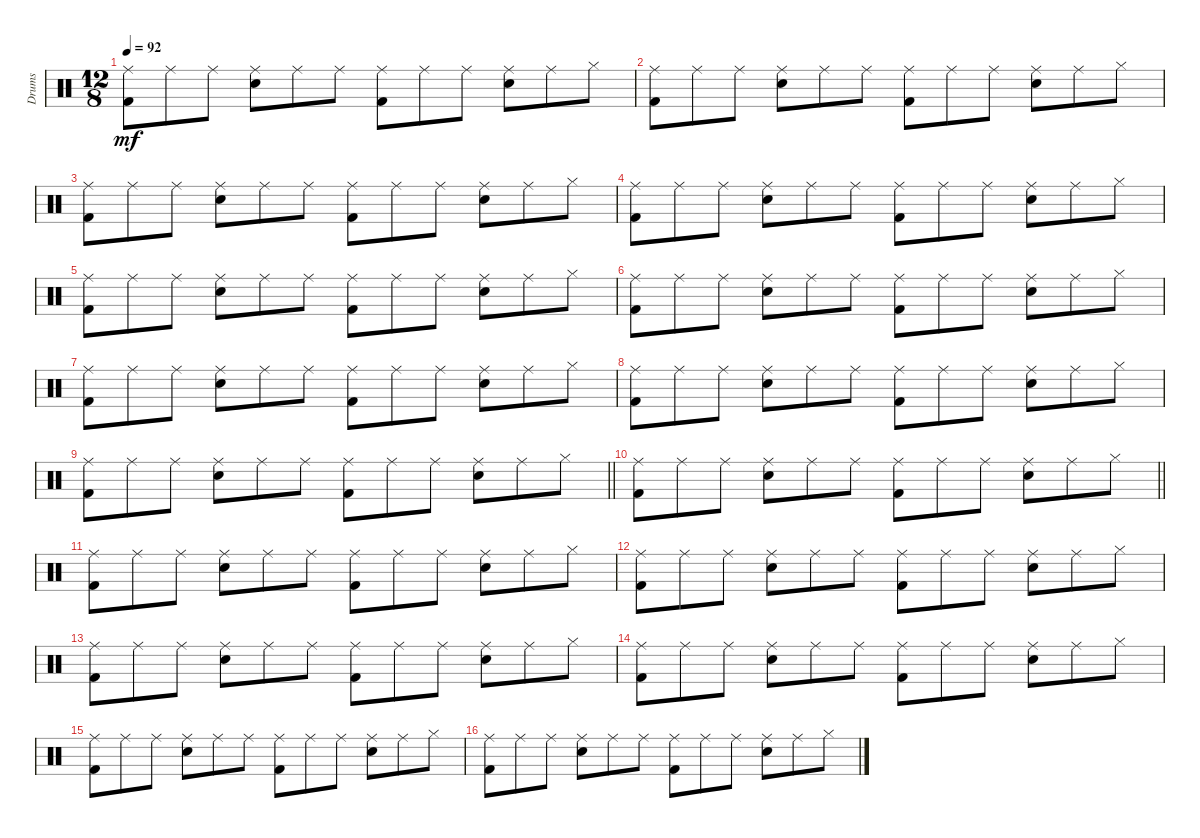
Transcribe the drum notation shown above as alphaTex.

\track ("Drums" "Drums") {instrument percussion}
\staff {score}
\articulation defaults
\ts (12 8)
\tempo 92
\clef neutral
\ks c
("Ride (middle)" "Kick (hit) 2").8{dy mf} "Ride (middle)".8 "Ride (middle)".8 ("Ride (middle)" "Electric Snare (hit)").8 "Ride (middle)".8 "Ride (middle)".8 ("Ride (middle)" "Kick (hit) 2").8 "Ride (middle)".8 "Ride (middle)".8 ("Ride (middle)" "Electric Snare (hit)").8 "Ride (middle)".8 "Hi-Hat (closed)".8 |
("Ride (middle)" "Kick (hit) 2").8 "Ride (middle)".8 "Ride (middle)".8 ("Ride (middle)" "Electric Snare (hit)").8 "Ride (middle)".8 "Ride (middle)".8 ("Ride (middle)" "Kick (hit) 2").8 "Ride (middle)".8 "Ride (middle)".8 ("Ride (middle)" "Electric Snare (hit)").8 "Ride (middle)".8 "Hi-Hat (closed)".8 |
("Ride (middle)" "Kick (hit) 2").8 "Ride (middle)".8 "Ride (middle)".8 ("Ride (middle)" "Electric Snare (hit)").8 "Ride (middle)".8 "Ride (middle)".8 ("Ride (middle)" "Kick (hit) 2").8 "Ride (middle)".8 "Ride (middle)".8 ("Ride (middle)" "Electric Snare (hit)").8 "Ride (middle)".8 "Hi-Hat (closed)".8 |
("Ride (middle)" "Kick (hit) 2").8 "Ride (middle)".8 "Ride (middle)".8 ("Ride (middle)" "Electric Snare (hit)").8 "Ride (middle)".8 "Ride (middle)".8 ("Ride (middle)" "Kick (hit) 2").8 "Ride (middle)".8 "Ride (middle)".8 ("Ride (middle)" "Electric Snare (hit)").8 "Ride (middle)".8 "Hi-Hat (closed)".8 |
("Ride (middle)" "Kick (hit) 2").8 "Ride (middle)".8 "Ride (middle)".8 ("Ride (middle)" "Electric Snare (hit)").8 "Ride (middle)".8 "Ride (middle)".8 ("Ride (middle)" "Kick (hit) 2").8 "Ride (middle)".8 "Ride (middle)".8 ("Ride (middle)" "Electric Snare (hit)").8 "Ride (middle)".8 "Hi-Hat (closed)".8 |
("Ride (middle)" "Kick (hit) 2").8 "Ride (middle)".8 "Ride (middle)".8 ("Ride (middle)" "Electric Snare (hit)").8 "Ride (middle)".8 "Ride (middle)".8 ("Ride (middle)" "Kick (hit) 2").8 "Ride (middle)".8 "Ride (middle)".8 ("Ride (middle)" "Electric Snare (hit)").8 "Ride (middle)".8 "Hi-Hat (closed)".8 |
("Ride (middle)" "Kick (hit) 2").8 "Ride (middle)".8 "Ride (middle)".8 ("Ride (middle)" "Electric Snare (hit)").8 "Ride (middle)".8 "Ride (middle)".8 ("Ride (middle)" "Kick (hit) 2").8 "Ride (middle)".8 "Ride (middle)".8 ("Ride (middle)" "Electric Snare (hit)").8 "Ride (middle)".8 "Hi-Hat (closed)".8 |
("Ride (middle)" "Kick (hit) 2").8 "Ride (middle)".8 "Ride (middle)".8 ("Ride (middle)" "Electric Snare (hit)").8 "Ride (middle)".8 "Ride (middle)".8 ("Ride (middle)" "Kick (hit) 2").8 "Ride (middle)".8 "Ride (middle)".8 ("Ride (middle)" "Electric Snare (hit)").8 "Ride (middle)".8 "Hi-Hat (closed)".8 |
\barLineRight lightlight
("Ride (middle)" "Kick (hit) 2").8 "Ride (middle)".8 "Ride (middle)".8 ("Ride (middle)" "Electric Snare (hit)").8 "Ride (middle)".8 "Ride (middle)".8 ("Ride (middle)" "Kick (hit) 2").8 "Ride (middle)".8 "Ride (middle)".8 ("Ride (middle)" "Electric Snare (hit)").8 "Ride (middle)".8 "Hi-Hat (closed)".8 |
\barLineRight lightlight
("Ride (middle)" "Kick (hit) 2").8 "Ride (middle)".8 "Ride (middle)".8 ("Ride (middle)" "Electric Snare (hit)").8 "Ride (middle)".8 "Ride (middle)".8 ("Ride (middle)" "Kick (hit) 2").8 "Ride (middle)".8 "Ride (middle)".8 ("Ride (middle)" "Electric Snare (hit)").8 "Ride (middle)".8 "Hi-Hat (closed)".8 |
("Ride (middle)" "Kick (hit) 2").8 "Ride (middle)".8 "Ride (middle)".8 ("Ride (middle)" "Electric Snare (hit)").8 "Ride (middle)".8 "Ride (middle)".8 ("Ride (middle)" "Kick (hit) 2").8 "Ride (middle)".8 "Ride (middle)".8 ("Ride (middle)" "Electric Snare (hit)").8 "Ride (middle)".8 "Hi-Hat (closed)".8 |
("Ride (middle)" "Kick (hit) 2").8 "Ride (middle)".8 "Ride (middle)".8 ("Ride (middle)" "Electric Snare (hit)").8 "Ride (middle)".8 "Ride (middle)".8 ("Ride (middle)" "Kick (hit) 2").8 "Ride (middle)".8 "Ride (middle)".8 ("Ride (middle)" "Electric Snare (hit)").8 "Ride (middle)".8 "Hi-Hat (closed)".8 |
("Ride (middle)" "Kick (hit) 2").8 "Ride (middle)".8 "Ride (middle)".8 ("Ride (middle)" "Electric Snare (hit)").8 "Ride (middle)".8 "Ride (middle)".8 ("Ride (middle)" "Kick (hit) 2").8 "Ride (middle)".8 "Ride (middle)".8 ("Ride (middle)" "Electric Snare (hit)").8 "Ride (middle)".8 "Hi-Hat (closed)".8 |
("Ride (middle)" "Kick (hit) 2").8 "Ride (middle)".8 "Ride (middle)".8 ("Ride (middle)" "Electric Snare (hit)").8 "Ride (middle)".8 "Ride (middle)".8 ("Ride (middle)" "Kick (hit) 2").8 "Ride (middle)".8 "Ride (middle)".8 ("Ride (middle)" "Electric Snare (hit)").8 "Ride (middle)".8 "Hi-Hat (closed)".8 |
("Ride (middle)" "Kick (hit) 2").8 "Ride (middle)".8 "Ride (middle)".8 ("Ride (middle)" "Electric Snare (hit)").8 "Ride (middle)".8 "Ride (middle)".8 ("Ride (middle)" "Kick (hit) 2").8 "Ride (middle)".8 "Ride (middle)".8 ("Ride (middle)" "Electric Snare (hit)").8 "Ride (middle)".8 "Hi-Hat (closed)".8 |
("Ride (middle)" "Kick (hit) 2").8 "Ride (middle)".8 "Ride (middle)".8 ("Ride (middle)" "Electric Snare (hit)").8 "Ride (middle)".8 "Ride (middle)".8 ("Ride (middle)" "Kick (hit) 2").8 "Ride (middle)".8 "Ride (middle)".8 ("Ride (middle)" "Electric Snare (hit)").8 "Ride (middle)".8 "Hi-Hat (closed)".8
